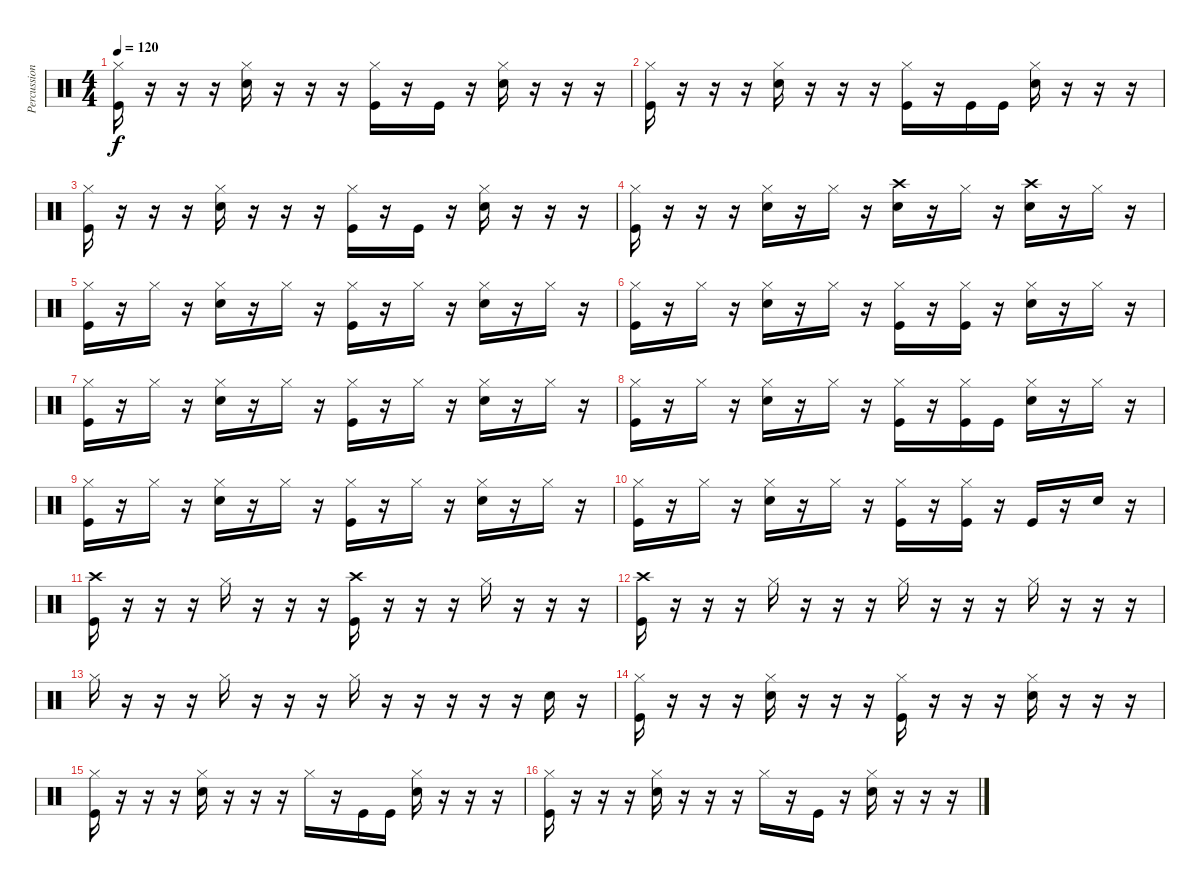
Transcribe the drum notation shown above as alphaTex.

\track ("Percussion" "Percussion") {instrument percussion}
\staff {score}
\articulation defaults
\ts (4 4)
\tempo 120
\clef neutral
\ks c
("Hi-Hat (closed)" "Kick (hit)").16{dy f} r.16 r.16 r.16 ("Hi-Hat (closed)" "Snare (hit) 2").16 r.16 r.16 r.16 ("Hi-Hat (closed)" "Kick (hit)").16 r.16 "Kick (hit)".16 r.16 ("Hi-Hat (closed)" "Snare (hit) 2").16 r.16 r.16 r.16 |
("Hi-Hat (closed)" "Kick (hit)").16 r.16 r.16 r.16 ("Hi-Hat (closed)" "Snare (hit) 2").16 r.16 r.16 r.16 ("Hi-Hat (closed)" "Kick (hit)").16 r.16 "Kick (hit)".16 "Kick (hit)".16 ("Hi-Hat (closed)" "Snare (hit) 2").16 r.16 r.16 r.16 |
("Hi-Hat (closed)" "Kick (hit)").16 r.16 r.16 r.16 ("Hi-Hat (closed)" "Snare (hit) 2").16 r.16 r.16 r.16 ("Hi-Hat (closed)" "Kick (hit)").16 r.16 "Kick (hit)".16 r.16 ("Hi-Hat (closed)" "Snare (hit) 2").16 r.16 r.16 r.16 |
("Hi-Hat (closed)" "Kick (hit)").16 r.16 r.16 r.16 ("Hi-Hat (closed)" "Snare (hit) 2").16 r.16 "Hi-Hat (closed)".16 r.16 ("Crash high (hit)" "Snare (hit) 2").16 r.16 "Hi-Hat (closed)".16 r.16 ("Crash high (hit)" "Snare (hit) 2").16 r.16 "Hi-Hat (closed)".16 r.16 |
("Hi-Hat (closed)" "Kick (hit)").16 r.16 "Hi-Hat (closed)".16 r.16 ("Hi-Hat (closed)" "Snare (hit) 2").16 r.16 "Hi-Hat (closed)".16 r.16 ("Hi-Hat (closed)" "Kick (hit)").16 r.16 "Hi-Hat (closed)".16 r.16 ("Hi-Hat (closed)" "Snare (hit) 2").16 r.16 "Hi-Hat (closed)".16 r.16 |
("Hi-Hat (closed)" "Kick (hit)").16 r.16 "Hi-Hat (closed)".16 r.16 ("Hi-Hat (closed)" "Snare (hit) 2").16 r.16 "Hi-Hat (closed)".16 r.16 ("Hi-Hat (closed)" "Kick (hit)").16 r.16 ("Hi-Hat (closed)" "Kick (hit)").16 r.16 ("Hi-Hat (closed)" "Snare (hit) 2").16 r.16 "Hi-Hat (closed)".16 r.16 |
("Hi-Hat (closed)" "Kick (hit)").16 r.16 "Hi-Hat (closed)".16 r.16 ("Hi-Hat (closed)" "Snare (hit) 2").16 r.16 "Hi-Hat (closed)".16 r.16 ("Hi-Hat (closed)" "Kick (hit)").16 r.16 "Hi-Hat (closed)".16 r.16 ("Hi-Hat (closed)" "Snare (hit) 2").16 r.16 "Hi-Hat (closed)".16 r.16 |
("Hi-Hat (closed)" "Kick (hit)").16 r.16 "Hi-Hat (closed)".16 r.16 ("Hi-Hat (closed)" "Snare (hit) 2").16 r.16 "Hi-Hat (closed)".16 r.16 ("Hi-Hat (closed)" "Kick (hit)").16 r.16 ("Hi-Hat (closed)" "Kick (hit)").16 "Kick (hit)".16 ("Hi-Hat (closed)" "Snare (hit) 2").16 r.16 "Hi-Hat (closed)".16 r.16 |
("Hi-Hat (closed)" "Kick (hit)").16 r.16 "Hi-Hat (closed)".16 r.16 ("Hi-Hat (closed)" "Snare (hit) 2").16 r.16 "Hi-Hat (closed)".16 r.16 ("Hi-Hat (closed)" "Kick (hit)").16 r.16 "Hi-Hat (closed)".16 r.16 ("Hi-Hat (closed)" "Snare (hit) 2").16 r.16 "Hi-Hat (closed)".16 r.16 |
("Hi-Hat (closed)" "Kick (hit)").16 r.16 "Hi-Hat (closed)".16 r.16 ("Hi-Hat (closed)" "Snare (hit) 2").16 r.16 "Hi-Hat (closed)".16 r.16 ("Hi-Hat (closed)" "Kick (hit)").16 r.16 ("Hi-Hat (closed)" "Kick (hit)").16 r.16 "Kick (hit)".16 r.16 "Snare (hit) 2".16 r.16 |
("Crash high (hit)" "Kick (hit)").16 r.16 r.16 r.16 "Hi-Hat (closed)".16 r.16 r.16 r.16 ("Crash high (hit)" "Kick (hit)").16 r.16 r.16 r.16 "Hi-Hat (closed)".16 r.16 r.16 r.16 |
("Crash high (hit)" "Kick (hit)").16 r.16 r.16 r.16 "Hi-Hat (closed)".16 r.16 r.16 r.16 "Hi-Hat (closed)".16 r.16 r.16 r.16 "Hi-Hat (closed)".16 r.16 r.16 r.16 |
"Hi-Hat (closed)".16 r.16 r.16 r.16 "Hi-Hat (closed)".16 r.16 r.16 r.16 "Hi-Hat (closed)".16 r.16 r.16 r.16 r.16 r.16 "Snare (hit) 2".16 r.16 |
("Hi-Hat (closed)" "Kick (hit)").16 r.16 r.16 r.16 ("Hi-Hat (closed)" "Snare (hit) 2").16 r.16 r.16 r.16 ("Hi-Hat (closed)" "Kick (hit)").16 r.16 r.16 r.16 ("Hi-Hat (closed)" "Snare (hit) 2").16 r.16 r.16 r.16 |
("Hi-Hat (closed)" "Kick (hit)").16 r.16 r.16 r.16 ("Hi-Hat (closed)" "Snare (hit) 2").16 r.16 r.16 r.16 "Hi-Hat (closed)".16 r.16 "Kick (hit)".16 "Kick (hit)".16 ("Hi-Hat (closed)" "Snare (hit) 2").16 r.16 r.16 r.16 |
("Hi-Hat (closed)" "Kick (hit)").16 r.16 r.16 r.16 ("Hi-Hat (closed)" "Snare (hit) 2").16 r.16 r.16 r.16 "Hi-Hat (closed)".16 r.16 "Kick (hit)".16 r.16 ("Hi-Hat (closed)" "Snare (hit) 2").16 r.16 r.16 r.16
